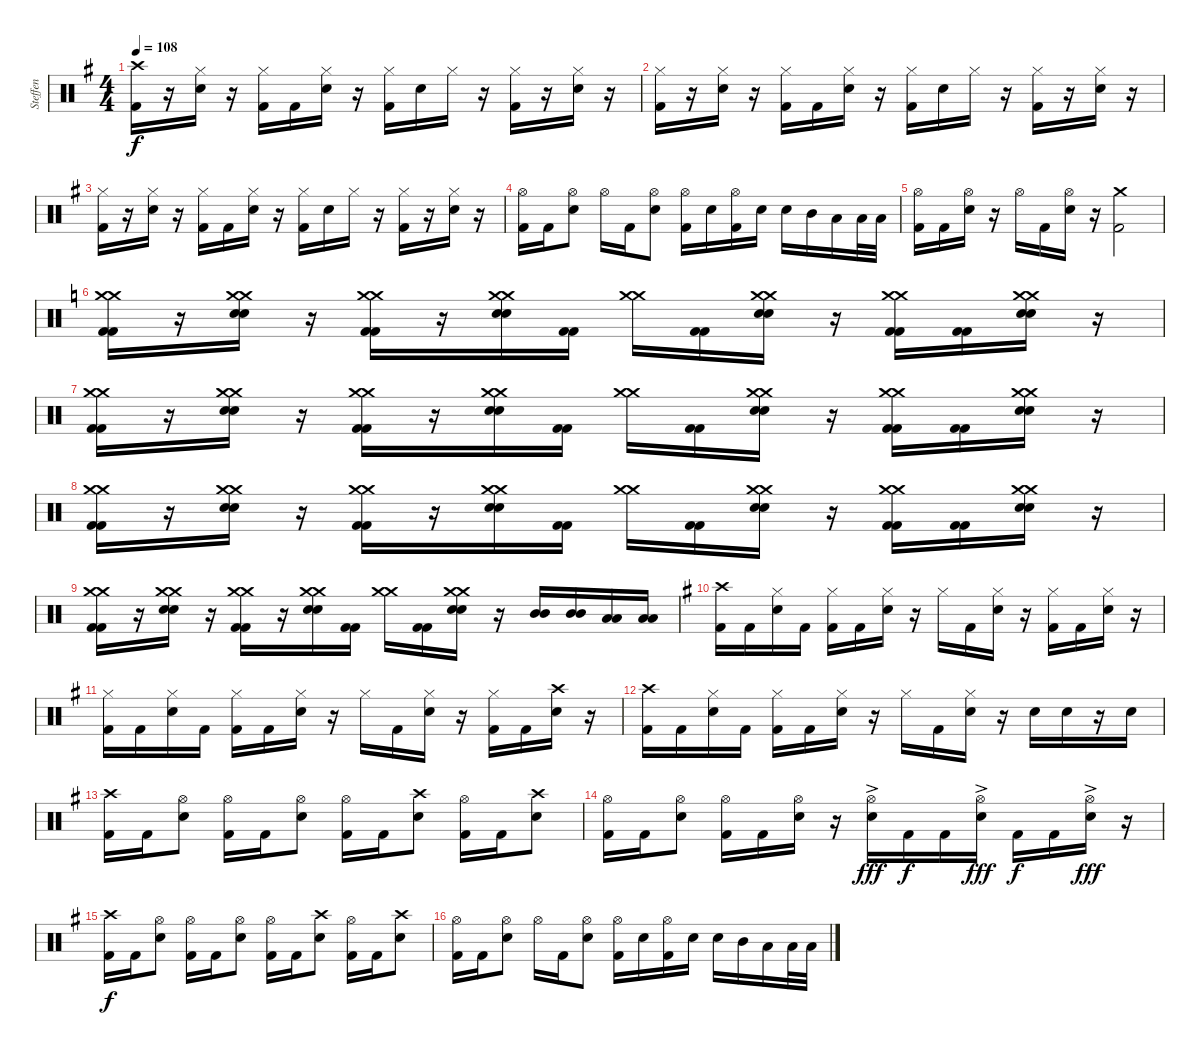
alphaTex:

\track ("Steffen" "Steffen") {instrument percussion}
\staff {score}
\articulation defaults
\ts (4 4)
\tempo 108
\clef neutral
\ks g
("Crash high (hit)" "Kick (hit) 2").16{dy f} r.16 ("Hi-Hat (closed)" "Electric Snare (hit)").16 r.16 ("Hi-Hat (closed)" "Kick (hit) 2").16 "Kick (hit) 2".16 ("Hi-Hat (closed)" "Electric Snare (hit)").16 r.16 ("Hi-Hat (closed)" "Kick (hit) 2").16 "Electric Snare (hit)".16 "Hi-Hat (closed)".16 r.16 ("Hi-Hat (closed)" "Kick (hit) 2").16 r.16 ("Hi-Hat (closed)" "Electric Snare (hit)").16 r.16 |
("Hi-Hat (closed)" "Kick (hit) 2").16 r.16 ("Hi-Hat (closed)" "Electric Snare (hit)").16 r.16 ("Hi-Hat (closed)" "Kick (hit) 2").16 "Kick (hit) 2".16 ("Hi-Hat (closed)" "Electric Snare (hit)").16 r.16 ("Hi-Hat (closed)" "Kick (hit) 2").16 "Electric Snare (hit)".16 "Hi-Hat (closed)".16 r.16 ("Hi-Hat (closed)" "Kick (hit) 2").16 r.16 ("Hi-Hat (closed)" "Electric Snare (hit)").16 r.16 |
("Hi-Hat (closed)" "Kick (hit) 2").16 r.16 ("Hi-Hat (closed)" "Electric Snare (hit)").16 r.16 ("Hi-Hat (closed)" "Kick (hit) 2").16 "Kick (hit) 2".16 ("Hi-Hat (closed)" "Electric Snare (hit)").16 r.16 ("Hi-Hat (closed)" "Kick (hit) 2").16 "Electric Snare (hit)".16 "Hi-Hat (closed)".16 r.16 ("Hi-Hat (closed)" "Kick (hit) 2").16 r.16 ("Hi-Hat (closed)" "Electric Snare (hit)").16 r.16 |
("Hi-Hat (open)" "Kick (hit) 2").16 "Kick (hit) 2".16 ("Hi-Hat (open)" "Electric Snare (hit)").8 "Hi-Hat (open)".16 "Kick (hit) 2".16 ("Hi-Hat (open)" "Electric Snare (hit)").8 ("Hi-Hat (open)" "Kick (hit) 2").16 "Electric Snare (hit)".16 ("Hi-Hat (open)" "Kick (hit) 2").16 "Electric Snare (hit)".16 "Electric Snare (hit)".16 "Mid Tom (hit)".16 "Low Tom (hit)".16 "Low Tom (hit)".32 "Low Tom (hit)".32 |
("Hi-Hat (open)" "Kick (hit) 2").16 "Kick (hit) 2".16 ("Hi-Hat (open)" "Electric Snare (hit)").16 r.16 "Hi-Hat (open)".16 "Kick (hit) 2".16 ("Hi-Hat (open)" "Electric Snare (hit)").16 r.16 ("Crash medium (hit)" "Kick (hit) 2").2 |
\ks c
("Kick (hit) 2" "Kick (hit) 2" "Crash medium (hit)" "Crash medium (hit)").16 r.16 ("Snare (hit) 2" "Snare (hit) 2" "Crash medium (hit)" "Crash medium (hit)").16 r.16 ("Kick (hit) 2" "Kick (hit) 2" "Crash medium (hit)" "Crash medium (hit)").16 r.16 ("Snare (hit) 2" "Snare (hit) 2" "Crash medium (hit)" "Crash medium (hit)").16 ("Kick (hit) 2" "Kick (hit) 2").16 ("Crash medium (hit)" "Crash medium (hit)").16 ("Kick (hit) 2" "Kick (hit) 2").16 ("Snare (hit) 2" "Snare (hit) 2" "Crash medium (hit)" "Crash medium (hit)").16 r.16 ("Kick (hit) 2" "Kick (hit) 2" "Crash medium (hit)" "Crash medium (hit)").16 ("Kick (hit) 2" "Kick (hit) 2").16 ("Snare (hit) 2" "Snare (hit) 2" "Crash medium (hit)" "Crash medium (hit)").16 r.16 |
("Kick (hit) 2" "Kick (hit) 2" "Crash medium (hit)" "Crash medium (hit)").16 r.16 ("Snare (hit) 2" "Snare (hit) 2" "Crash medium (hit)" "Crash medium (hit)").16 r.16 ("Kick (hit) 2" "Kick (hit) 2" "Crash medium (hit)" "Crash medium (hit)").16 r.16 ("Snare (hit) 2" "Snare (hit) 2" "Crash medium (hit)" "Crash medium (hit)").16 ("Kick (hit) 2" "Kick (hit) 2").16 ("Crash medium (hit)" "Crash medium (hit)").16 ("Kick (hit) 2" "Kick (hit) 2").16 ("Snare (hit) 2" "Snare (hit) 2" "Crash medium (hit)" "Crash medium (hit)").16 r.16 ("Kick (hit) 2" "Kick (hit) 2" "Crash medium (hit)" "Crash medium (hit)").16 ("Kick (hit) 2" "Kick (hit) 2").16 ("Snare (hit) 2" "Snare (hit) 2" "Crash medium (hit)" "Crash medium (hit)").16 r.16 |
("Kick (hit) 2" "Kick (hit) 2" "Crash medium (hit)" "Crash medium (hit)").16 r.16 ("Snare (hit) 2" "Snare (hit) 2" "Crash medium (hit)" "Crash medium (hit)").16 r.16 ("Kick (hit) 2" "Kick (hit) 2" "Crash medium (hit)" "Crash medium (hit)").16 r.16 ("Snare (hit) 2" "Snare (hit) 2" "Crash medium (hit)" "Crash medium (hit)").16 ("Kick (hit) 2" "Kick (hit) 2").16 ("Crash medium (hit)" "Crash medium (hit)").16 ("Kick (hit) 2" "Kick (hit) 2").16 ("Snare (hit) 2" "Snare (hit) 2" "Crash medium (hit)" "Crash medium (hit)").16 r.16 ("Kick (hit) 2" "Kick (hit) 2" "Crash medium (hit)" "Crash medium (hit)").16 ("Kick (hit) 2" "Kick (hit) 2").16 ("Snare (hit) 2" "Snare (hit) 2" "Crash medium (hit)" "Crash medium (hit)").16 r.16 |
("Kick (hit) 2" "Kick (hit) 2" "Crash medium (hit)" "Crash medium (hit)").16 r.16 ("Snare (hit) 2" "Snare (hit) 2" "Crash medium (hit)" "Crash medium (hit)").16 r.16 ("Kick (hit) 2" "Kick (hit) 2" "Crash medium (hit)" "Crash medium (hit)").16 r.16 ("Snare (hit) 2" "Snare (hit) 2" "Crash medium (hit)" "Crash medium (hit)").16 ("Kick (hit) 2" "Kick (hit) 2").16 ("Crash medium (hit)" "Crash medium (hit)").16 ("Kick (hit) 2" "Kick (hit) 2").16 ("Snare (hit) 2" "Snare (hit) 2" "Crash medium (hit)" "Crash medium (hit)").16 r.16 ("Mid Tom (hit)" "Mid Tom (hit)").16 ("Mid Tom (hit)" "Mid Tom (hit)").16 ("Low Tom (hit)" "Low Tom (hit)").16 ("Low Tom (hit)" "Low Tom (hit)").16 |
\ks g
("Crash high (hit)" "Kick (hit) 2").16 "Kick (hit) 2".16 ("Hi-Hat (closed)" "Electric Snare (hit)").16 "Kick (hit) 2".16 ("Hi-Hat (closed)" "Kick (hit) 2").16 "Kick (hit) 2".16 ("Hi-Hat (closed)" "Electric Snare (hit)").16 r.16 "Hi-Hat (closed)".16 "Kick (hit) 2".16 ("Hi-Hat (closed)" "Electric Snare (hit)").16 r.16 ("Hi-Hat (closed)" "Kick (hit) 2").16 "Kick (hit) 2".16 ("Hi-Hat (closed)" "Electric Snare (hit)").16 r.16 |
("Hi-Hat (closed)" "Kick (hit) 2").16 "Kick (hit) 2".16 ("Hi-Hat (closed)" "Electric Snare (hit)").16 "Kick (hit) 2".16 ("Hi-Hat (closed)" "Kick (hit) 2").16 "Kick (hit) 2".16 ("Hi-Hat (closed)" "Electric Snare (hit)").16 r.16 "Hi-Hat (closed)".16 "Kick (hit) 2".16 ("Hi-Hat (closed)" "Electric Snare (hit)").16 r.16 ("Hi-Hat (closed)" "Kick (hit) 2").16 "Kick (hit) 2".16 ("Crash high (hit)" "Electric Snare (hit)").16 r.16 |
("Crash high (hit)" "Kick (hit) 2").16 "Kick (hit) 2".16 ("Hi-Hat (closed)" "Electric Snare (hit)").16 "Kick (hit) 2".16 ("Hi-Hat (closed)" "Kick (hit) 2").16 "Kick (hit) 2".16 ("Hi-Hat (closed)" "Electric Snare (hit)").16 r.16 "Hi-Hat (closed)".16 "Kick (hit) 2".16 ("Hi-Hat (closed)" "Electric Snare (hit)").16 r.16 "Electric Snare (hit)".16 "Electric Snare (hit)".16 r.16 "Electric Snare (hit)".16 |
("Crash high (hit)" "Kick (hit) 2").16 "Kick (hit) 2".16 ("Hi-Hat (open)" "Electric Snare (hit)").8 ("Hi-Hat (open)" "Kick (hit) 2").16 "Kick (hit) 2".16 ("Hi-Hat (open)" "Electric Snare (hit)").8 ("Hi-Hat (open)" "Kick (hit) 2").16 "Kick (hit) 2".16 ("Crash high (hit)" "Electric Snare (hit)").8 ("Hi-Hat (open)" "Kick (hit) 2").16 "Kick (hit) 2".16 ("Crash high (hit)" "Electric Snare (hit)").8 |
("Hi-Hat (open)" "Kick (hit) 2").16 "Kick (hit) 2".16 ("Hi-Hat (open)" "Electric Snare (hit)").8 ("Hi-Hat (open)" "Kick (hit) 2").16 "Kick (hit) 2".16 ("Hi-Hat (open)" "Electric Snare (hit)").16 r.16 ("Hi-Hat (open)"{ac} "Electric Snare (hit)").16{dy fff} "Kick (hit) 2".16{dy f} "Kick (hit) 2".16 ("Hi-Hat (open)"{ac} "Electric Snare (hit)").16{dy fff} "Kick (hit) 2".16{dy f} "Kick (hit) 2".16 ("Hi-Hat (open)"{ac} "Electric Snare (hit)").16{dy fff} r.16 |
("Crash high (hit)" "Kick (hit) 2").16{dy f} "Kick (hit) 2".16 ("Hi-Hat (open)" "Electric Snare (hit)").8 ("Hi-Hat (open)" "Kick (hit) 2").16 "Kick (hit) 2".16 ("Hi-Hat (open)" "Electric Snare (hit)").8 ("Hi-Hat (open)" "Kick (hit) 2").16 "Kick (hit) 2".16 ("Crash high (hit)" "Electric Snare (hit)").8 ("Hi-Hat (open)" "Kick (hit) 2").16 "Kick (hit) 2".16 ("Crash high (hit)" "Electric Snare (hit)").8 |
("Hi-Hat (open)" "Kick (hit) 2").16 "Kick (hit) 2".16 ("Hi-Hat (open)" "Electric Snare (hit)").8 "Hi-Hat (open)".16 "Kick (hit) 2".16 ("Hi-Hat (open)" "Electric Snare (hit)").8 ("Hi-Hat (open)" "Kick (hit) 2").16 "Electric Snare (hit)".16 ("Hi-Hat (open)" "Kick (hit) 2").16 "Electric Snare (hit)".16 "Electric Snare (hit)".16 "Mid Tom (hit)".16 "Low Tom (hit)".16 "Low Tom (hit)".32 "Low Tom (hit)".32
